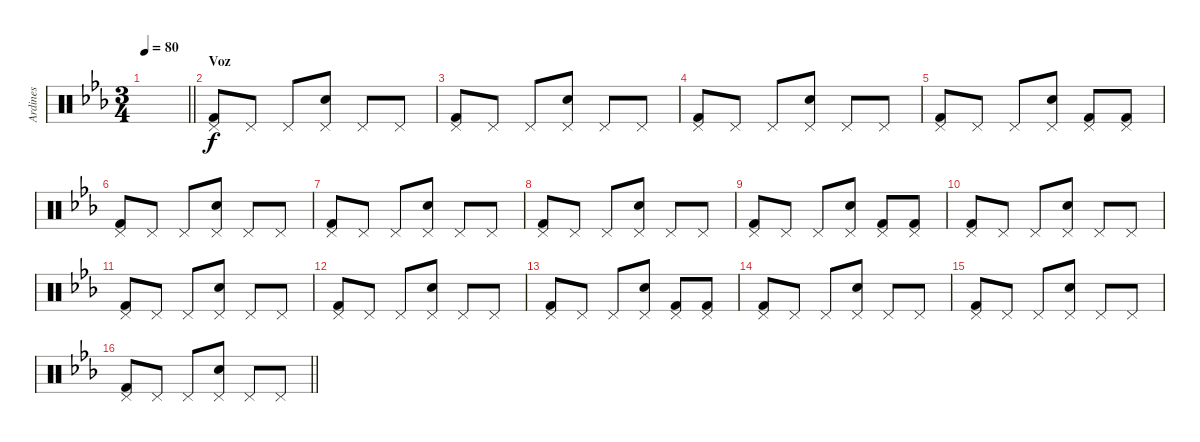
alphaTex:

\track ("Ardines" "Ardines") {instrument percussion}
\staff {score}
\articulation defaults
\ts (3 4)
\tempo 80
\clef neutral
\barLineRight lightlight
\ks eb
|
\section ("" "Voz")
("Kick (hit) 2" "Pedal Hi-Hat (hit)").8 "Pedal Hi-Hat (hit)".8 "Pedal Hi-Hat (hit)".8 ("Snare (hit) 2" "Pedal Hi-Hat (hit)").8 "Pedal Hi-Hat (hit)".8 "Pedal Hi-Hat (hit)".8 |
("Kick (hit) 2" "Pedal Hi-Hat (hit)").8 "Pedal Hi-Hat (hit)".8 "Pedal Hi-Hat (hit)".8 ("Snare (hit) 2" "Pedal Hi-Hat (hit)").8 "Pedal Hi-Hat (hit)".8 "Pedal Hi-Hat (hit)".8 |
("Kick (hit) 2" "Pedal Hi-Hat (hit)").8 "Pedal Hi-Hat (hit)".8 "Pedal Hi-Hat (hit)".8 ("Snare (hit) 2" "Pedal Hi-Hat (hit)").8 "Pedal Hi-Hat (hit)".8 "Pedal Hi-Hat (hit)".8 |
("Kick (hit) 2" "Pedal Hi-Hat (hit)").8 "Pedal Hi-Hat (hit)".8 "Pedal Hi-Hat (hit)".8 ("Snare (hit) 2" "Pedal Hi-Hat (hit)").8 ("Kick (hit) 2" "Pedal Hi-Hat (hit)").8 ("Kick (hit) 2" "Pedal Hi-Hat (hit)").8 |
("Kick (hit) 2" "Pedal Hi-Hat (hit)").8 "Pedal Hi-Hat (hit)".8 "Pedal Hi-Hat (hit)".8 ("Snare (hit) 2" "Pedal Hi-Hat (hit)").8 "Pedal Hi-Hat (hit)".8 "Pedal Hi-Hat (hit)".8 |
("Kick (hit) 2" "Pedal Hi-Hat (hit)").8 "Pedal Hi-Hat (hit)".8 "Pedal Hi-Hat (hit)".8 ("Snare (hit) 2" "Pedal Hi-Hat (hit)").8 "Pedal Hi-Hat (hit)".8 "Pedal Hi-Hat (hit)".8 |
("Kick (hit) 2" "Pedal Hi-Hat (hit)").8 "Pedal Hi-Hat (hit)".8 "Pedal Hi-Hat (hit)".8 ("Snare (hit) 2" "Pedal Hi-Hat (hit)").8 "Pedal Hi-Hat (hit)".8 "Pedal Hi-Hat (hit)".8 |
("Kick (hit) 2" "Pedal Hi-Hat (hit)").8 "Pedal Hi-Hat (hit)".8 "Pedal Hi-Hat (hit)".8 ("Snare (hit) 2" "Pedal Hi-Hat (hit)").8 ("Kick (hit) 2" "Pedal Hi-Hat (hit)").8 ("Kick (hit) 2" "Pedal Hi-Hat (hit)").8 |
("Kick (hit) 2" "Pedal Hi-Hat (hit)").8 "Pedal Hi-Hat (hit)".8 "Pedal Hi-Hat (hit)".8 ("Snare (hit) 2" "Pedal Hi-Hat (hit)").8 "Pedal Hi-Hat (hit)".8 "Pedal Hi-Hat (hit)".8 |
("Kick (hit) 2" "Pedal Hi-Hat (hit)").8 "Pedal Hi-Hat (hit)".8 "Pedal Hi-Hat (hit)".8 ("Snare (hit) 2" "Pedal Hi-Hat (hit)").8 "Pedal Hi-Hat (hit)".8 "Pedal Hi-Hat (hit)".8 |
("Kick (hit) 2" "Pedal Hi-Hat (hit)").8 "Pedal Hi-Hat (hit)".8 "Pedal Hi-Hat (hit)".8 ("Snare (hit) 2" "Pedal Hi-Hat (hit)").8 "Pedal Hi-Hat (hit)".8 "Pedal Hi-Hat (hit)".8 |
("Kick (hit) 2" "Pedal Hi-Hat (hit)").8 "Pedal Hi-Hat (hit)".8 "Pedal Hi-Hat (hit)".8 ("Snare (hit) 2" "Pedal Hi-Hat (hit)").8 ("Kick (hit) 2" "Pedal Hi-Hat (hit)").8 ("Kick (hit) 2" "Pedal Hi-Hat (hit)").8 |
("Kick (hit) 2" "Pedal Hi-Hat (hit)").8 "Pedal Hi-Hat (hit)".8 "Pedal Hi-Hat (hit)".8 ("Snare (hit) 2" "Pedal Hi-Hat (hit)").8 "Pedal Hi-Hat (hit)".8 "Pedal Hi-Hat (hit)".8 |
("Kick (hit) 2" "Pedal Hi-Hat (hit)").8 "Pedal Hi-Hat (hit)".8 "Pedal Hi-Hat (hit)".8 ("Snare (hit) 2" "Pedal Hi-Hat (hit)").8 "Pedal Hi-Hat (hit)".8 "Pedal Hi-Hat (hit)".8 |
\barLineRight lightlight
("Kick (hit) 2" "Pedal Hi-Hat (hit)").8 "Pedal Hi-Hat (hit)".8 "Pedal Hi-Hat (hit)".8 ("Snare (hit) 2" "Pedal Hi-Hat (hit)").8 "Pedal Hi-Hat (hit)".8 "Pedal Hi-Hat (hit)".8
